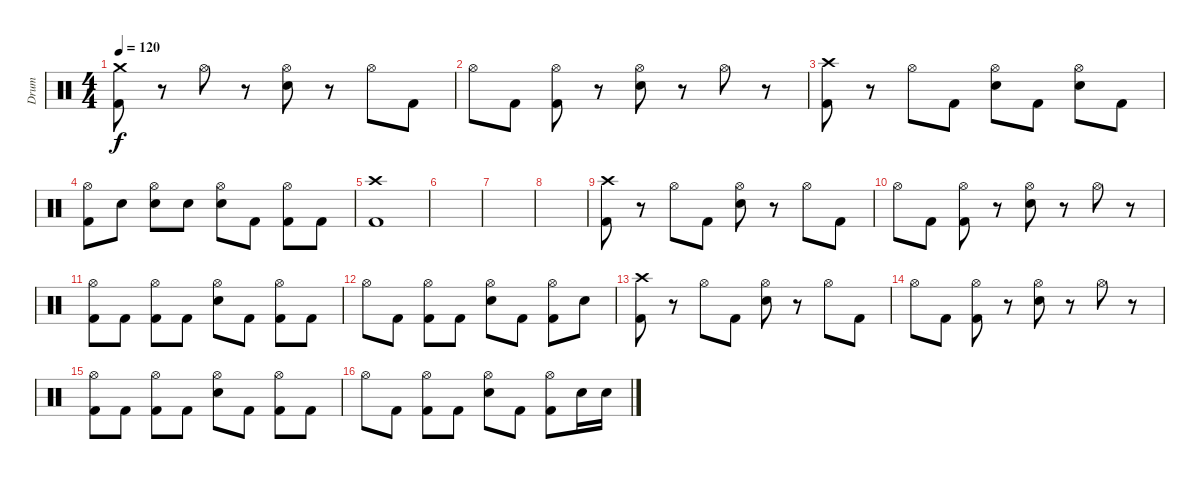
\track ("Drum" "Drum") {instrument percussion}
\staff {score}
\articulation defaults
\ts (4 4)
\tempo 120
\clef neutral
\ks c
("Crash medium (hit)" "Kick (hit) 2").8{dy f} r.8 "Hi-Hat (open)".8 r.8 ("Hi-Hat (open)" "Electric Snare (hit)").8 r.8 "Hi-Hat (open)".8 "Kick (hit) 2".8 |
"Hi-Hat (open)".8 "Kick (hit) 2".8 ("Hi-Hat (open)" "Kick (hit) 2").8 r.8 ("Hi-Hat (open)" "Electric Snare (hit)").8 r.8 "Hi-Hat (open)".8 r.8 |
("Crash high (hit)" "Kick (hit) 2").8 r.8 "Hi-Hat (open)".8 "Kick (hit) 2".8 ("Hi-Hat (open)" "Electric Snare (hit)").8 "Kick (hit) 2".8 ("Hi-Hat (open)" "Electric Snare (hit)").8 "Kick (hit) 2".8 |
("Hi-Hat (open)" "Kick (hit) 2").8 "Electric Snare (hit)".8 ("Hi-Hat (open)" "Electric Snare (hit)").8 "Electric Snare (hit)".8 ("Hi-Hat (open)" "Electric Snare (hit)").8 "Kick (hit) 2".8 ("Hi-Hat (open)" "Kick (hit) 2").8 "Kick (hit) 2".8 |
("Crash high (hit)" "Kick (hit) 2").1 |
|
|
|
("Crash high (hit)" "Kick (hit) 2").8 r.8 "Hi-Hat (open)".8 "Kick (hit) 2".8 ("Hi-Hat (open)" "Electric Snare (hit)").8 r.8 "Hi-Hat (open)".8 "Kick (hit) 2".8 |
"Hi-Hat (open)".8 "Kick (hit) 2".8 ("Hi-Hat (open)" "Kick (hit) 2").8 r.8 ("Hi-Hat (open)" "Electric Snare (hit)").8 r.8 "Hi-Hat (open)".8 r.8 |
("Hi-Hat (open)" "Kick (hit) 2").8 "Kick (hit) 2".8 ("Hi-Hat (open)" "Kick (hit) 2").8 "Kick (hit) 2".8 ("Hi-Hat (open)" "Electric Snare (hit)").8 "Kick (hit) 2".8 ("Hi-Hat (open)" "Kick (hit) 2").8 "Kick (hit) 2".8 |
"Hi-Hat (open)".8 "Kick (hit) 2".8 ("Hi-Hat (open)" "Kick (hit) 2").8 "Kick (hit) 2".8 ("Hi-Hat (open)" "Electric Snare (hit)").8 "Kick (hit) 2".8 ("Hi-Hat (open)" "Kick (hit) 2").8 "Electric Snare (hit)".8 |
("Crash high (hit)" "Kick (hit) 2").8 r.8 "Hi-Hat (open)".8 "Kick (hit) 2".8 ("Hi-Hat (open)" "Electric Snare (hit)").8 r.8 "Hi-Hat (open)".8 "Kick (hit) 2".8 |
"Hi-Hat (open)".8 "Kick (hit) 2".8 ("Hi-Hat (open)" "Kick (hit) 2").8 r.8 ("Hi-Hat (open)" "Electric Snare (hit)").8 r.8 "Hi-Hat (open)".8 r.8 |
("Hi-Hat (open)" "Kick (hit) 2").8 "Kick (hit) 2".8 ("Hi-Hat (open)" "Kick (hit) 2").8 "Kick (hit) 2".8 ("Hi-Hat (open)" "Electric Snare (hit)").8 "Kick (hit) 2".8 ("Hi-Hat (open)" "Kick (hit) 2").8 "Kick (hit) 2".8 |
"Hi-Hat (open)".8 "Kick (hit) 2".8 ("Hi-Hat (open)" "Kick (hit) 2").8 "Kick (hit) 2".8 ("Hi-Hat (open)" "Electric Snare (hit)").8 "Kick (hit) 2".8 ("Hi-Hat (open)" "Kick (hit) 2").8 "Electric Snare (hit)".16 "Electric Snare (hit)".16
